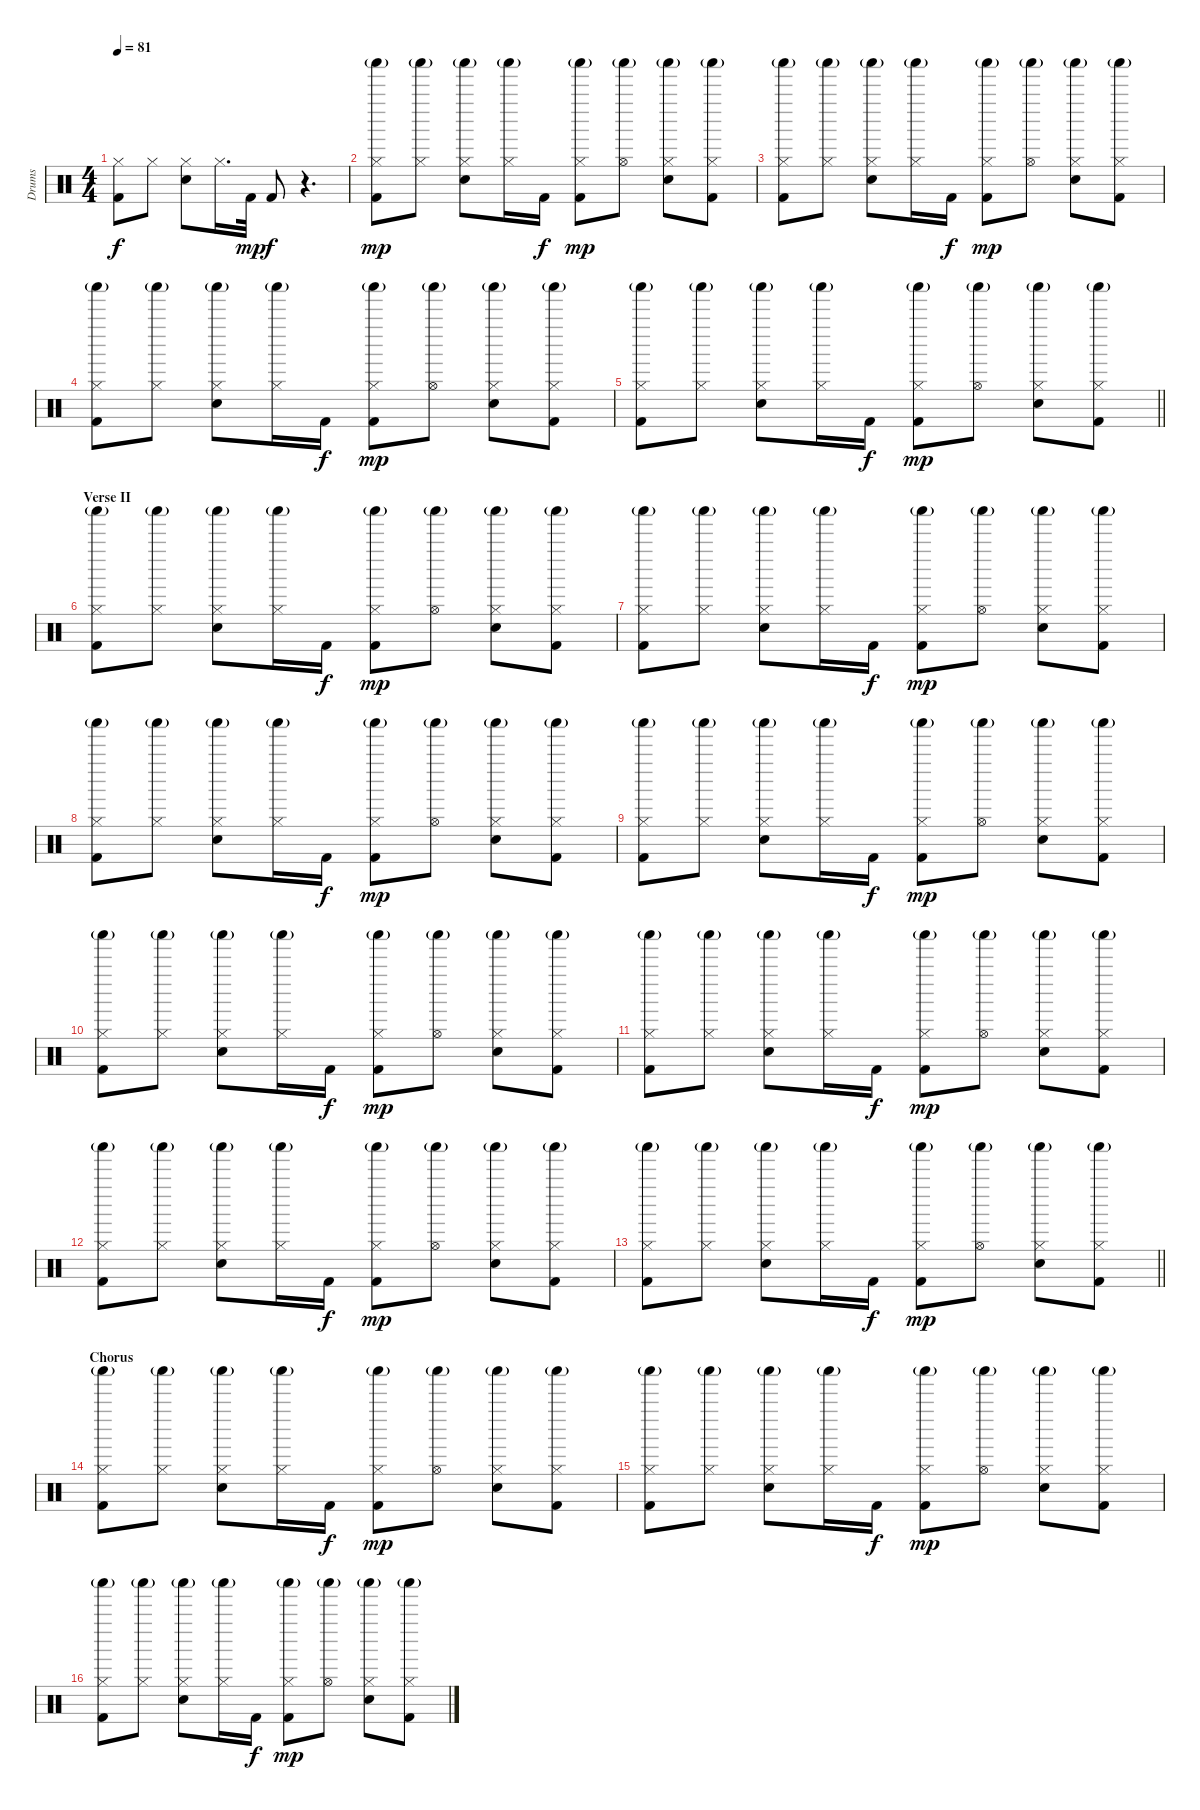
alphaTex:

\track ("Drums" "Drums") {instrument percussion}
\staff {score}
\articulation defaults
\ts (4 4)
\tempo 81
\clef neutral
\ks c
("Hi-Hat (closed)" "Kick (hit) 2").8{dy f} "Hi-Hat (closed)".8 ("Hi-Hat (closed)" "Snare (hit) 2").8 "Hi-Hat (closed)".16{d} "Kick (hit) 2".32{dy mp} "Kick (hit) 2".8{dy f} r.4{d} |
("Hi-Hat (closed)" "Shaker (hit)"{g} "Kick (hit) 2").8{dy mp} ("Hi-Hat (closed)" "Shaker (hit)"{g}).8 ("Hi-Hat (closed)" "Shaker (hit)"{g} "Snare (hit) 2").8 ("Hi-Hat (closed)" "Shaker (hit)"{g}).16 "Kick (hit) 2".16{dy f} ("Hi-Hat (closed)" "Shaker (hit)"{g} "Kick (hit) 2").8{dy mp} ("Hi-Hat (open)" "Shaker (hit)"{g}).8 ("Hi-Hat (closed)" "Shaker (hit)"{g} "Snare (hit) 2").8 ("Hi-Hat (closed)" "Shaker (hit)"{g} "Kick (hit) 2").8 |
("Hi-Hat (closed)" "Shaker (hit)"{g} "Kick (hit) 2").8 ("Hi-Hat (closed)" "Shaker (hit)"{g}).8 ("Hi-Hat (closed)" "Shaker (hit)"{g} "Snare (hit) 2").8 ("Hi-Hat (closed)" "Shaker (hit)"{g}).16 "Kick (hit) 2".16{dy f} ("Hi-Hat (closed)" "Shaker (hit)"{g} "Kick (hit) 2").8{dy mp} ("Hi-Hat (open)" "Shaker (hit)"{g}).8 ("Hi-Hat (closed)" "Shaker (hit)"{g} "Snare (hit) 2").8 ("Hi-Hat (closed)" "Shaker (hit)"{g} "Kick (hit) 2").8 |
("Hi-Hat (closed)" "Shaker (hit)"{g} "Kick (hit) 2").8 ("Hi-Hat (closed)" "Shaker (hit)"{g}).8 ("Hi-Hat (closed)" "Shaker (hit)"{g} "Snare (hit) 2").8 ("Hi-Hat (closed)" "Shaker (hit)"{g}).16 "Kick (hit) 2".16{dy f} ("Hi-Hat (closed)" "Shaker (hit)"{g} "Kick (hit) 2").8{dy mp} ("Hi-Hat (open)" "Shaker (hit)"{g}).8 ("Hi-Hat (closed)" "Shaker (hit)"{g} "Snare (hit) 2").8 ("Hi-Hat (closed)" "Shaker (hit)"{g} "Kick (hit) 2").8 |
\barLineRight lightlight
("Hi-Hat (closed)" "Shaker (hit)"{g} "Kick (hit) 2").8 ("Hi-Hat (closed)" "Shaker (hit)"{g}).8 ("Hi-Hat (closed)" "Shaker (hit)"{g} "Snare (hit) 2").8 ("Hi-Hat (closed)" "Shaker (hit)"{g}).16 "Kick (hit) 2".16{dy f} ("Hi-Hat (closed)" "Shaker (hit)"{g} "Kick (hit) 2").8{dy mp} ("Hi-Hat (open)" "Shaker (hit)"{g}).8 ("Hi-Hat (closed)" "Shaker (hit)"{g} "Snare (hit) 2").8 ("Hi-Hat (closed)" "Shaker (hit)"{g} "Kick (hit) 2").8 |
\section ("" "Verse II")
("Hi-Hat (closed)" "Shaker (hit)"{g} "Kick (hit) 2").8 ("Hi-Hat (closed)" "Shaker (hit)"{g}).8 ("Hi-Hat (closed)" "Shaker (hit)"{g} "Snare (hit) 2").8 ("Hi-Hat (closed)" "Shaker (hit)"{g}).16 "Kick (hit) 2".16{dy f} ("Hi-Hat (closed)" "Shaker (hit)"{g} "Kick (hit) 2").8{dy mp} ("Hi-Hat (open)" "Shaker (hit)"{g}).8 ("Hi-Hat (closed)" "Shaker (hit)"{g} "Snare (hit) 2").8 ("Hi-Hat (closed)" "Shaker (hit)"{g} "Kick (hit) 2").8 |
("Hi-Hat (closed)" "Shaker (hit)"{g} "Kick (hit) 2").8 ("Hi-Hat (closed)" "Shaker (hit)"{g}).8 ("Hi-Hat (closed)" "Shaker (hit)"{g} "Snare (hit) 2").8 ("Hi-Hat (closed)" "Shaker (hit)"{g}).16 "Kick (hit) 2".16{dy f} ("Hi-Hat (closed)" "Shaker (hit)"{g} "Kick (hit) 2").8{dy mp} ("Hi-Hat (open)" "Shaker (hit)"{g}).8 ("Hi-Hat (closed)" "Shaker (hit)"{g} "Snare (hit) 2").8 ("Hi-Hat (closed)" "Shaker (hit)"{g} "Kick (hit) 2").8 |
("Hi-Hat (closed)" "Shaker (hit)"{g} "Kick (hit) 2").8 ("Hi-Hat (closed)" "Shaker (hit)"{g}).8 ("Hi-Hat (closed)" "Shaker (hit)"{g} "Snare (hit) 2").8 ("Hi-Hat (closed)" "Shaker (hit)"{g}).16 "Kick (hit) 2".16{dy f} ("Hi-Hat (closed)" "Shaker (hit)"{g} "Kick (hit) 2").8{dy mp} ("Hi-Hat (open)" "Shaker (hit)"{g}).8 ("Hi-Hat (closed)" "Shaker (hit)"{g} "Snare (hit) 2").8 ("Hi-Hat (closed)" "Shaker (hit)"{g} "Kick (hit) 2").8 |
("Hi-Hat (closed)" "Shaker (hit)"{g} "Kick (hit) 2").8 ("Hi-Hat (closed)" "Shaker (hit)"{g}).8 ("Hi-Hat (closed)" "Shaker (hit)"{g} "Snare (hit) 2").8 ("Hi-Hat (closed)" "Shaker (hit)"{g}).16 "Kick (hit) 2".16{dy f} ("Hi-Hat (closed)" "Shaker (hit)"{g} "Kick (hit) 2").8{dy mp} ("Hi-Hat (open)" "Shaker (hit)"{g}).8 ("Hi-Hat (closed)" "Shaker (hit)"{g} "Snare (hit) 2").8 ("Hi-Hat (closed)" "Shaker (hit)"{g} "Kick (hit) 2").8 |
("Hi-Hat (closed)" "Shaker (hit)"{g} "Kick (hit) 2").8 ("Hi-Hat (closed)" "Shaker (hit)"{g}).8 ("Hi-Hat (closed)" "Shaker (hit)"{g} "Snare (hit) 2").8 ("Hi-Hat (closed)" "Shaker (hit)"{g}).16 "Kick (hit) 2".16{dy f} ("Hi-Hat (closed)" "Shaker (hit)"{g} "Kick (hit) 2").8{dy mp} ("Hi-Hat (open)" "Shaker (hit)"{g}).8 ("Hi-Hat (closed)" "Shaker (hit)"{g} "Snare (hit) 2").8 ("Hi-Hat (closed)" "Shaker (hit)"{g} "Kick (hit) 2").8 |
("Hi-Hat (closed)" "Shaker (hit)"{g} "Kick (hit) 2").8 ("Hi-Hat (closed)" "Shaker (hit)"{g}).8 ("Hi-Hat (closed)" "Shaker (hit)"{g} "Snare (hit) 2").8 ("Hi-Hat (closed)" "Shaker (hit)"{g}).16 "Kick (hit) 2".16{dy f} ("Hi-Hat (closed)" "Shaker (hit)"{g} "Kick (hit) 2").8{dy mp} ("Hi-Hat (open)" "Shaker (hit)"{g}).8 ("Hi-Hat (closed)" "Shaker (hit)"{g} "Snare (hit) 2").8 ("Hi-Hat (closed)" "Shaker (hit)"{g} "Kick (hit) 2").8 |
("Hi-Hat (closed)" "Shaker (hit)"{g} "Kick (hit) 2").8 ("Hi-Hat (closed)" "Shaker (hit)"{g}).8 ("Hi-Hat (closed)" "Shaker (hit)"{g} "Snare (hit) 2").8 ("Hi-Hat (closed)" "Shaker (hit)"{g}).16 "Kick (hit) 2".16{dy f} ("Hi-Hat (closed)" "Shaker (hit)"{g} "Kick (hit) 2").8{dy mp} ("Hi-Hat (open)" "Shaker (hit)"{g}).8 ("Hi-Hat (closed)" "Shaker (hit)"{g} "Snare (hit) 2").8 ("Hi-Hat (closed)" "Shaker (hit)"{g} "Kick (hit) 2").8 |
\barLineRight lightlight
("Hi-Hat (closed)" "Shaker (hit)"{g} "Kick (hit) 2").8 ("Hi-Hat (closed)" "Shaker (hit)"{g}).8 ("Hi-Hat (closed)" "Shaker (hit)"{g} "Snare (hit) 2").8 ("Hi-Hat (closed)" "Shaker (hit)"{g}).16 "Kick (hit) 2".16{dy f} ("Hi-Hat (closed)" "Shaker (hit)"{g} "Kick (hit) 2").8{dy mp} ("Hi-Hat (open)" "Shaker (hit)"{g}).8 ("Hi-Hat (closed)" "Shaker (hit)"{g} "Snare (hit) 2").8 ("Hi-Hat (closed)" "Shaker (hit)"{g} "Kick (hit) 2").8 |
\section ("" "Chorus")
("Hi-Hat (closed)" "Shaker (hit)"{g} "Kick (hit) 2").8 ("Hi-Hat (closed)" "Shaker (hit)"{g}).8 ("Hi-Hat (closed)" "Shaker (hit)"{g} "Snare (hit) 2").8 ("Hi-Hat (closed)" "Shaker (hit)"{g}).16 "Kick (hit) 2".16{dy f} ("Hi-Hat (closed)" "Shaker (hit)"{g} "Kick (hit) 2").8{dy mp} ("Hi-Hat (open)" "Shaker (hit)"{g}).8 ("Hi-Hat (closed)" "Shaker (hit)"{g} "Snare (hit) 2").8 ("Hi-Hat (closed)" "Shaker (hit)"{g} "Kick (hit) 2").8 |
("Hi-Hat (closed)" "Shaker (hit)"{g} "Kick (hit) 2").8 ("Hi-Hat (closed)" "Shaker (hit)"{g}).8 ("Hi-Hat (closed)" "Shaker (hit)"{g} "Snare (hit) 2").8 ("Hi-Hat (closed)" "Shaker (hit)"{g}).16 "Kick (hit) 2".16{dy f} ("Hi-Hat (closed)" "Shaker (hit)"{g} "Kick (hit) 2").8{dy mp} ("Hi-Hat (open)" "Shaker (hit)"{g}).8 ("Hi-Hat (closed)" "Shaker (hit)"{g} "Snare (hit) 2").8 ("Hi-Hat (closed)" "Shaker (hit)"{g} "Kick (hit) 2").8 |
("Hi-Hat (closed)" "Shaker (hit)"{g} "Kick (hit) 2").8 ("Hi-Hat (closed)" "Shaker (hit)"{g}).8 ("Hi-Hat (closed)" "Shaker (hit)"{g} "Snare (hit) 2").8 ("Hi-Hat (closed)" "Shaker (hit)"{g}).16 "Kick (hit) 2".16{dy f} ("Hi-Hat (closed)" "Shaker (hit)"{g} "Kick (hit) 2").8{dy mp} ("Hi-Hat (open)" "Shaker (hit)"{g}).8 ("Hi-Hat (closed)" "Shaker (hit)"{g} "Snare (hit) 2").8 ("Hi-Hat (closed)" "Shaker (hit)"{g} "Kick (hit) 2").8
